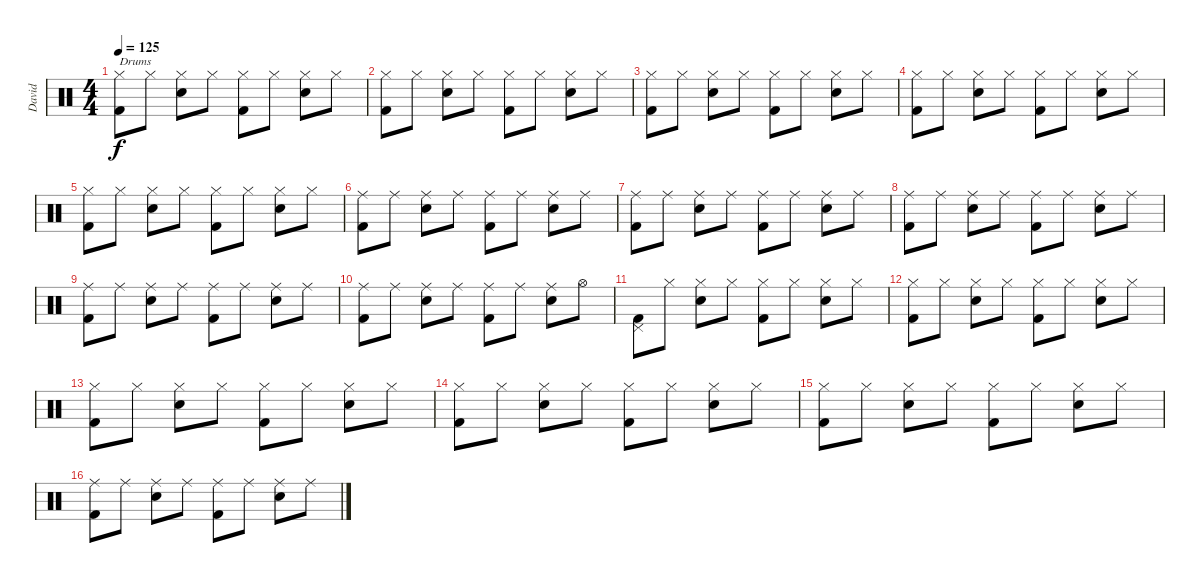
\track ("David" "David") {instrument percussion}
\staff {score}
\articulation defaults
\ts (4 4)
\tempo 125
\clef neutral
\ks c
("Hi-Hat (closed)" "Kick (hit) 2").8{txt "Drums" dy f} "Hi-Hat (closed)".8 ("Hi-Hat (closed)" "Electric Snare (hit)").8 "Hi-Hat (closed)".8 ("Hi-Hat (closed)" "Kick (hit) 2").8 "Hi-Hat (closed)".8 ("Hi-Hat (closed)" "Electric Snare (hit)").8 "Hi-Hat (closed)".8 |
("Hi-Hat (closed)" "Kick (hit) 2").8 "Hi-Hat (closed)".8 ("Hi-Hat (closed)" "Electric Snare (hit)").8 "Hi-Hat (closed)".8 ("Hi-Hat (closed)" "Kick (hit) 2").8 "Hi-Hat (closed)".8 ("Hi-Hat (closed)" "Electric Snare (hit)").8 "Hi-Hat (closed)".8 |
("Hi-Hat (closed)" "Kick (hit) 2").8 "Hi-Hat (closed)".8 ("Hi-Hat (closed)" "Electric Snare (hit)").8 "Hi-Hat (closed)".8 ("Hi-Hat (closed)" "Kick (hit) 2").8 "Hi-Hat (closed)".8 ("Hi-Hat (closed)" "Electric Snare (hit)").8 "Hi-Hat (closed)".8 |
("Hi-Hat (closed)" "Kick (hit) 2").8 "Hi-Hat (closed)".8 ("Hi-Hat (closed)" "Electric Snare (hit)").8 "Hi-Hat (closed)".8 ("Hi-Hat (closed)" "Kick (hit) 2").8 "Hi-Hat (closed)".8 ("Hi-Hat (closed)" "Electric Snare (hit)").8 "Hi-Hat (closed)".8 |
("Hi-Hat (closed)" "Kick (hit) 2").8 "Hi-Hat (closed)".8 ("Hi-Hat (closed)" "Electric Snare (hit)").8 "Hi-Hat (closed)".8 ("Hi-Hat (closed)" "Kick (hit) 2").8 "Hi-Hat (closed)".8 ("Hi-Hat (closed)" "Electric Snare (hit)").8 "Hi-Hat (closed)".8 |
("Ride (middle)" "Kick (hit) 2").8 "Ride (middle)".8 ("Ride (middle)" "Electric Snare (hit)").8 "Ride (middle)".8 ("Ride (middle)" "Kick (hit) 2").8 "Ride (middle)".8 ("Ride (middle)" "Electric Snare (hit)").8 "Ride (middle)".8 |
("Ride (middle)" "Kick (hit) 2").8 "Ride (middle)".8 ("Ride (middle)" "Electric Snare (hit)").8 "Ride (middle)".8 ("Ride (middle)" "Kick (hit) 2").8 "Ride (middle)".8 ("Ride (middle)" "Electric Snare (hit)").8 "Ride (middle)".8 |
("Ride (middle)" "Kick (hit) 2").8 "Ride (middle)".8 ("Ride (middle)" "Electric Snare (hit)").8 "Ride (middle)".8 ("Ride (middle)" "Kick (hit) 2").8 "Ride (middle)".8 ("Ride (middle)" "Electric Snare (hit)").8 "Ride (middle)".8 |
("Ride (middle)" "Kick (hit) 2").8 "Ride (middle)".8 ("Ride (middle)" "Electric Snare (hit)").8 "Ride (middle)".8 ("Ride (middle)" "Kick (hit) 2").8 "Ride (middle)".8 ("Ride (middle)" "Electric Snare (hit)").8 "Ride (middle)".8 |
("Ride (middle)" "Kick (hit) 2").8 "Ride (middle)".8 ("Ride (middle)" "Electric Snare (hit)").8 "Ride (middle)".8 ("Ride (middle)" "Kick (hit) 2").8 "Ride (middle)".8 ("Ride (middle)" "Electric Snare (hit)").8 "Hi-Hat (open)".8 |
("Pedal Hi-Hat (hit)" "Kick (hit) 2").8 "Hi-Hat (closed)".8 ("Hi-Hat (closed)" "Electric Snare (hit)").8 "Hi-Hat (closed)".8 ("Hi-Hat (closed)" "Kick (hit) 2").8 "Hi-Hat (closed)".8 ("Hi-Hat (closed)" "Electric Snare (hit)").8 "Hi-Hat (closed)".8 |
("Hi-Hat (closed)" "Kick (hit) 2").8 "Hi-Hat (closed)".8 ("Hi-Hat (closed)" "Electric Snare (hit)").8 "Hi-Hat (closed)".8 ("Hi-Hat (closed)" "Kick (hit) 2").8 "Hi-Hat (closed)".8 ("Hi-Hat (closed)" "Electric Snare (hit)").8 "Hi-Hat (closed)".8 |
("Hi-Hat (closed)" "Kick (hit) 2").8 "Hi-Hat (closed)".8 ("Hi-Hat (closed)" "Electric Snare (hit)").8 "Hi-Hat (closed)".8 ("Hi-Hat (closed)" "Kick (hit) 2").8 "Hi-Hat (closed)".8 ("Hi-Hat (closed)" "Electric Snare (hit)").8 "Hi-Hat (closed)".8 |
("Hi-Hat (closed)" "Kick (hit) 2").8 "Hi-Hat (closed)".8 ("Hi-Hat (closed)" "Electric Snare (hit)").8 "Hi-Hat (closed)".8 ("Hi-Hat (closed)" "Kick (hit) 2").8 "Hi-Hat (closed)".8 ("Hi-Hat (closed)" "Electric Snare (hit)").8 "Hi-Hat (closed)".8 |
("Hi-Hat (closed)" "Kick (hit) 2").8 "Hi-Hat (closed)".8 ("Hi-Hat (closed)" "Electric Snare (hit)").8 "Hi-Hat (closed)".8 ("Hi-Hat (closed)" "Kick (hit) 2").8 "Hi-Hat (closed)".8 ("Hi-Hat (closed)" "Electric Snare (hit)").8 "Hi-Hat (closed)".8 |
("Ride (middle)" "Kick (hit) 2").8 "Ride (middle)".8 ("Ride (middle)" "Electric Snare (hit)").8 "Ride (middle)".8 ("Ride (middle)" "Kick (hit) 2").8 "Ride (middle)".8 ("Ride (middle)" "Electric Snare (hit)").8 "Ride (middle)".8
